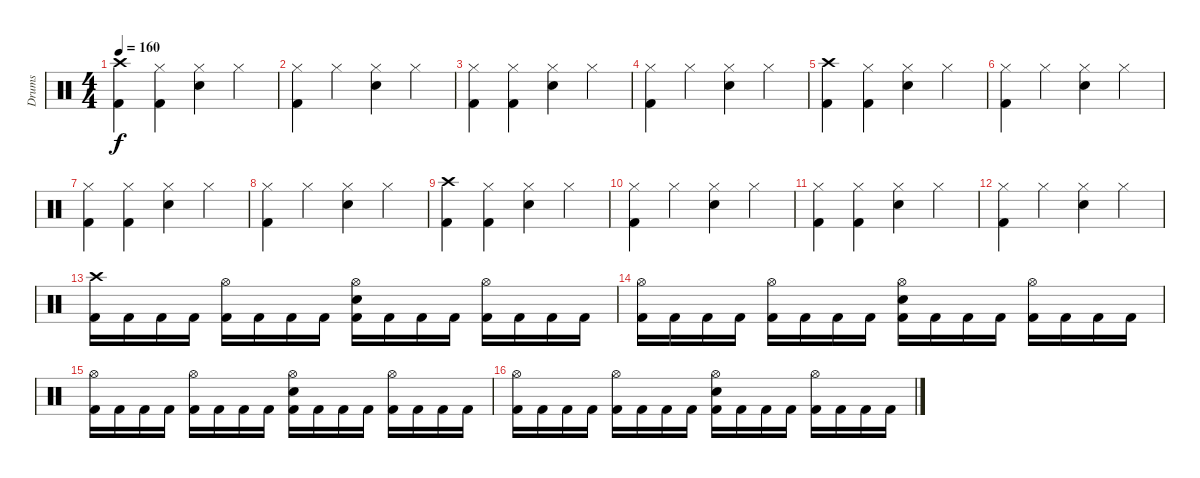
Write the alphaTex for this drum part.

\track ("Drums" "Drums") {instrument percussion}
\staff {score}
\articulation defaults
\ts (4 4)
\tempo 160
\clef neutral
\ks c
("Crash high (hit)" "Kick (hit) 2").4{dy f} ("Hi-Hat (closed)" "Kick (hit) 2").4 ("Hi-Hat (closed)" "Snare (hit) 2").4 "Hi-Hat (closed)".4 |
("Hi-Hat (closed)" "Kick (hit) 2").4 "Hi-Hat (closed)".4 ("Hi-Hat (closed)" "Snare (hit) 2").4 "Hi-Hat (closed)".4 |
("Hi-Hat (closed)" "Kick (hit) 2").4 ("Hi-Hat (closed)" "Kick (hit) 2").4 ("Hi-Hat (closed)" "Snare (hit) 2").4 "Hi-Hat (closed)".4 |
("Hi-Hat (closed)" "Kick (hit) 2").4 "Hi-Hat (closed)".4 ("Hi-Hat (closed)" "Snare (hit) 2").4 "Hi-Hat (closed)".4 |
("Crash high (hit)" "Kick (hit) 2").4 ("Hi-Hat (closed)" "Kick (hit) 2").4 ("Hi-Hat (closed)" "Snare (hit) 2").4 "Hi-Hat (closed)".4 |
("Hi-Hat (closed)" "Kick (hit) 2").4 "Hi-Hat (closed)".4 ("Hi-Hat (closed)" "Snare (hit) 2").4 "Hi-Hat (closed)".4 |
("Hi-Hat (closed)" "Kick (hit) 2").4 ("Hi-Hat (closed)" "Kick (hit) 2").4 ("Hi-Hat (closed)" "Snare (hit) 2").4 "Hi-Hat (closed)".4 |
("Hi-Hat (closed)" "Kick (hit) 2").4 "Hi-Hat (closed)".4 ("Hi-Hat (closed)" "Snare (hit) 2").4 "Hi-Hat (closed)".4 |
("Crash high (hit)" "Kick (hit) 2").4 ("Hi-Hat (closed)" "Kick (hit) 2").4 ("Hi-Hat (closed)" "Snare (hit) 2").4 "Hi-Hat (closed)".4 |
("Hi-Hat (closed)" "Kick (hit) 2").4 "Hi-Hat (closed)".4 ("Hi-Hat (closed)" "Snare (hit) 2").4 "Hi-Hat (closed)".4 |
("Hi-Hat (closed)" "Kick (hit) 2").4 ("Hi-Hat (closed)" "Kick (hit) 2").4 ("Hi-Hat (closed)" "Snare (hit) 2").4 "Hi-Hat (closed)".4 |
("Hi-Hat (closed)" "Kick (hit) 2").4 "Hi-Hat (closed)".4 ("Hi-Hat (closed)" "Snare (hit) 2").4 "Hi-Hat (closed)".4 |
("Crash high (hit)" "Kick (hit) 2").16 "Kick (hit) 2".16 "Kick (hit) 2".16 "Kick (hit) 2".16 ("Hi-Hat (open)" "Kick (hit) 2").16 "Kick (hit) 2".16 "Kick (hit) 2".16 "Kick (hit) 2".16 ("Hi-Hat (open)" "Snare (hit) 2" "Kick (hit) 2").16 "Kick (hit) 2".16 "Kick (hit) 2".16 "Kick (hit) 2".16 ("Hi-Hat (open)" "Kick (hit) 2").16 "Kick (hit) 2".16 "Kick (hit) 2".16 "Kick (hit) 2".16 |
("Hi-Hat (open)" "Kick (hit) 2").16 "Kick (hit) 2".16 "Kick (hit) 2".16 "Kick (hit) 2".16 ("Hi-Hat (open)" "Kick (hit) 2").16 "Kick (hit) 2".16 "Kick (hit) 2".16 "Kick (hit) 2".16 ("Hi-Hat (open)" "Snare (hit) 2" "Kick (hit) 2").16 "Kick (hit) 2".16 "Kick (hit) 2".16 "Kick (hit) 2".16 ("Hi-Hat (open)" "Kick (hit) 2").16 "Kick (hit) 2".16 "Kick (hit) 2".16 "Kick (hit) 2".16 |
("Hi-Hat (open)" "Kick (hit) 2").16 "Kick (hit) 2".16 "Kick (hit) 2".16 "Kick (hit) 2".16 ("Hi-Hat (open)" "Kick (hit) 2").16 "Kick (hit) 2".16 "Kick (hit) 2".16 "Kick (hit) 2".16 ("Hi-Hat (open)" "Snare (hit) 2" "Kick (hit) 2").16 "Kick (hit) 2".16 "Kick (hit) 2".16 "Kick (hit) 2".16 ("Hi-Hat (open)" "Kick (hit) 2").16 "Kick (hit) 2".16 "Kick (hit) 2".16 "Kick (hit) 2".16 |
("Hi-Hat (open)" "Kick (hit) 2").16 "Kick (hit) 2".16 "Kick (hit) 2".16 "Kick (hit) 2".16 ("Hi-Hat (open)" "Kick (hit) 2").16 "Kick (hit) 2".16 "Kick (hit) 2".16 "Kick (hit) 2".16 ("Hi-Hat (open)" "Snare (hit) 2" "Kick (hit) 2").16 "Kick (hit) 2".16 "Kick (hit) 2".16 "Kick (hit) 2".16 ("Hi-Hat (open)" "Kick (hit) 2").16 "Kick (hit) 2".16 "Kick (hit) 2".16 "Kick (hit) 2".16
